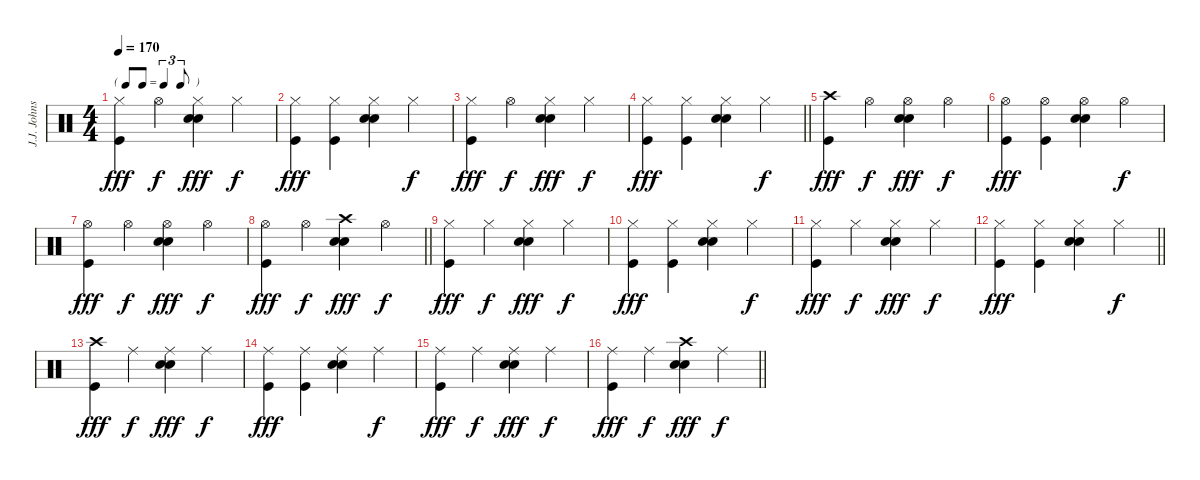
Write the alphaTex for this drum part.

\track ("J.J. Johnson" "J.J. Johns") {instrument percussion}
\staff {score}
\articulation defaults
\ts (4 4)
\tf triplet8th
\tempo 170
\clef neutral
\ks c
("Hi-Hat (closed)" "Kick (hit)").4{dy fff} "Hi-Hat (open)".4{dy f} ("Hi-Hat (closed)" "Electric Snare (hit)" "Snare (hit) 2").4{dy fff} "Hi-Hat (closed)".4{dy f} |
("Hi-Hat (closed)" "Kick (hit)").4{dy fff} ("Hi-Hat (closed)" "Kick (hit)").4 ("Hi-Hat (closed)" "Snare (hit) 2" "Electric Snare (hit)").4 "Hi-Hat (closed)".4{dy f} |
("Hi-Hat (closed)" "Kick (hit)").4{dy fff} "Hi-Hat (open)".4{dy f} ("Hi-Hat (closed)" "Electric Snare (hit)" "Snare (hit) 2").4{dy fff} "Hi-Hat (closed)".4{dy f} |
\barLineRight lightlight
("Hi-Hat (closed)" "Kick (hit)").4{dy fff} ("Hi-Hat (closed)" "Kick (hit)").4 ("Hi-Hat (closed)" "Snare (hit) 2" "Electric Snare (hit)").4 "Hi-Hat (closed)".4{dy f} |
("Crash high (hit)" "Kick (hit)").4{dy fff} "Hi-Hat (open)".4{dy f} ("Hi-Hat (open)" "Electric Snare (hit)" "Snare (hit) 2").4{dy fff} "Hi-Hat (open)".4{dy f} |
("Hi-Hat (open)" "Kick (hit)").4{dy fff} ("Hi-Hat (open)" "Kick (hit)").4 ("Hi-Hat (open)" "Snare (hit) 2" "Electric Snare (hit)").4 "Hi-Hat (open)".4{dy f} |
("Hi-Hat (open)" "Kick (hit)").4{dy fff} "Hi-Hat (open)".4{dy f} ("Hi-Hat (open)" "Electric Snare (hit)" "Snare (hit) 2").4{dy fff} "Hi-Hat (open)".4{dy f} |
\barLineRight lightlight
("Hi-Hat (open)" "Kick (hit)").4{dy fff} "Hi-Hat (open)".4{dy f} ("Crash high (hit)" "Electric Snare (hit)" "Snare (hit) 2").4{dy fff} "Hi-Hat (open)".4{dy f} |
("Hi-Hat (closed)" "Kick (hit)").4{dy fff} "Hi-Hat (closed)".4{dy f} ("Hi-Hat (closed)" "Electric Snare (hit)" "Snare (hit) 2").4{dy fff} "Hi-Hat (closed)".4{dy f} |
("Hi-Hat (closed)" "Kick (hit)").4{dy fff} ("Hi-Hat (closed)" "Kick (hit)").4 ("Hi-Hat (closed)" "Snare (hit) 2" "Electric Snare (hit)").4 "Hi-Hat (closed)".4{dy f} |
("Hi-Hat (closed)" "Kick (hit)").4{dy fff} "Hi-Hat (closed)".4{dy f} ("Hi-Hat (closed)" "Electric Snare (hit)" "Snare (hit) 2").4{dy fff} "Hi-Hat (closed)".4{dy f} |
\barLineRight lightlight
("Hi-Hat (closed)" "Kick (hit)").4{dy fff} ("Hi-Hat (closed)" "Kick (hit)").4 ("Hi-Hat (closed)" "Snare (hit) 2" "Electric Snare (hit)").4 "Hi-Hat (closed)".4{dy f} |
("Crash high (hit)" "Kick (hit)").4{dy fff} "Ride (middle)".4{dy f} ("Ride (middle)" "Electric Snare (hit)" "Snare (hit) 2").4{dy fff} "Ride (middle)".4{dy f} |
("Ride (middle)" "Kick (hit)").4{dy fff} ("Ride (middle)" "Kick (hit)").4 ("Ride (middle)" "Snare (hit) 2" "Electric Snare (hit)").4 "Ride (middle)".4{dy f} |
("Ride (middle)" "Kick (hit)").4{dy fff} "Ride (middle)".4{dy f} ("Ride (middle)" "Electric Snare (hit)" "Snare (hit) 2").4{dy fff} "Ride (middle)".4{dy f} |
\barLineRight lightlight
("Ride (middle)" "Kick (hit)").4{dy fff} "Ride (middle)".4{dy f} ("Crash high (hit)" "Electric Snare (hit)" "Snare (hit) 2").4{dy fff} "Ride (middle)".4{dy f}
